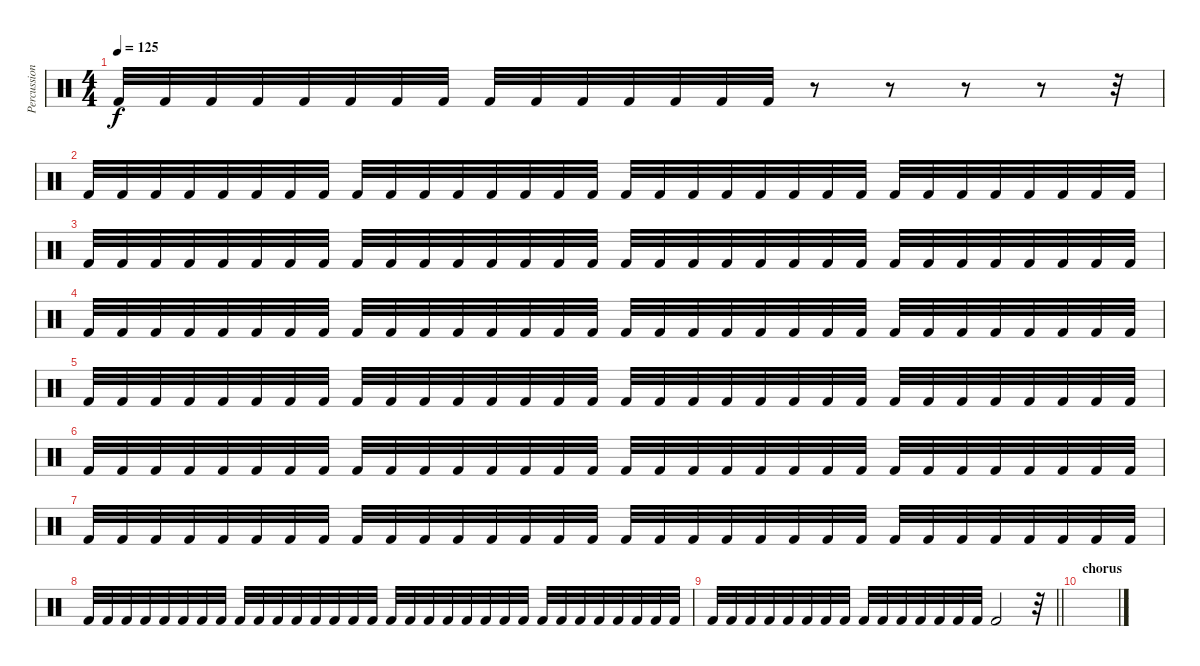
\track ("Percussion" "Percussion") {instrument percussion}
\staff {score}
\articulation defaults
\ts (4 4)
\tempo 125
\clef neutral
\ks c "Kick (hit) 2".32{dy f} "Kick (hit) 2".32 "Kick (hit) 2".32 "Kick (hit) 2".32 "Kick (hit) 2".32 "Kick (hit) 2".32 "Kick (hit) 2".32 "Kick (hit) 2".32 "Kick (hit) 2".32 "Kick (hit) 2".32 "Kick (hit) 2".32 "Kick (hit) 2".32 "Kick (hit) 2".32 "Kick (hit) 2".32 "Kick (hit) 2".32
r.8 r.8 r.8 r.8 r.32 |
"Kick (hit) 2".32 "Kick (hit) 2".32 "Kick (hit) 2".32 "Kick (hit) 2".32 "Kick (hit) 2".32 "Kick (hit) 2".32 "Kick (hit) 2".32 "Kick (hit) 2".32 "Kick (hit) 2".32 "Kick (hit) 2".32 "Kick (hit) 2".32 "Kick (hit) 2".32 "Kick (hit) 2".32 "Kick (hit) 2".32 "Kick (hit) 2".32 "Kick (hit) 2".32 "Kick (hit) 2".32 "Kick (hit) 2".32 "Kick (hit) 2".32 "Kick (hit) 2".32 "Kick (hit) 2".32 "Kick (hit) 2".32 "Kick (hit) 2".32 "Kick (hit) 2".32 "Kick (hit) 2".32 "Kick (hit) 2".32 "Kick (hit) 2".32 "Kick (hit) 2".32 "Kick (hit) 2".32 "Kick (hit) 2".32 "Kick (hit) 2".32 "Kick (hit) 2".32 |
"Kick (hit) 2".32 "Kick (hit) 2".32 "Kick (hit) 2".32 "Kick (hit) 2".32 "Kick (hit) 2".32 "Kick (hit) 2".32 "Kick (hit) 2".32 "Kick (hit) 2".32 "Kick (hit) 2".32 "Kick (hit) 2".32 "Kick (hit) 2".32 "Kick (hit) 2".32 "Kick (hit) 2".32 "Kick (hit) 2".32 "Kick (hit) 2".32 "Kick (hit) 2".32 "Kick (hit) 2".32 "Kick (hit) 2".32 "Kick (hit) 2".32 "Kick (hit) 2".32 "Kick (hit) 2".32 "Kick (hit) 2".32 "Kick (hit) 2".32 "Kick (hit) 2".32 "Kick (hit) 2".32 "Kick (hit) 2".32 "Kick (hit) 2".32 "Kick (hit) 2".32 "Kick (hit) 2".32 "Kick (hit) 2".32 "Kick (hit) 2".32 "Kick (hit) 2".32 |
"Kick (hit) 2".32 "Kick (hit) 2".32 "Kick (hit) 2".32 "Kick (hit) 2".32 "Kick (hit) 2".32 "Kick (hit) 2".32 "Kick (hit) 2".32 "Kick (hit) 2".32 "Kick (hit) 2".32 "Kick (hit) 2".32 "Kick (hit) 2".32 "Kick (hit) 2".32 "Kick (hit) 2".32 "Kick (hit) 2".32 "Kick (hit) 2".32 "Kick (hit) 2".32 "Kick (hit) 2".32 "Kick (hit) 2".32 "Kick (hit) 2".32 "Kick (hit) 2".32 "Kick (hit) 2".32 "Kick (hit) 2".32 "Kick (hit) 2".32 "Kick (hit) 2".32 "Kick (hit) 2".32 "Kick (hit) 2".32 "Kick (hit) 2".32 "Kick (hit) 2".32 "Kick (hit) 2".32 "Kick (hit) 2".32 "Kick (hit) 2".32 "Kick (hit) 2".32 |
"Kick (hit) 2".32 "Kick (hit) 2".32 "Kick (hit) 2".32 "Kick (hit) 2".32 "Kick (hit) 2".32 "Kick (hit) 2".32 "Kick (hit) 2".32 "Kick (hit) 2".32 "Kick (hit) 2".32 "Kick (hit) 2".32 "Kick (hit) 2".32 "Kick (hit) 2".32 "Kick (hit) 2".32 "Kick (hit) 2".32 "Kick (hit) 2".32 "Kick (hit) 2".32 "Kick (hit) 2".32 "Kick (hit) 2".32 "Kick (hit) 2".32 "Kick (hit) 2".32 "Kick (hit) 2".32 "Kick (hit) 2".32 "Kick (hit) 2".32 "Kick (hit) 2".32 "Kick (hit) 2".32 "Kick (hit) 2".32 "Kick (hit) 2".32 "Kick (hit) 2".32 "Kick (hit) 2".32 "Kick (hit) 2".32 "Kick (hit) 2".32 "Kick (hit) 2".32 |
"Kick (hit) 2".32 "Kick (hit) 2".32 "Kick (hit) 2".32 "Kick (hit) 2".32 "Kick (hit) 2".32 "Kick (hit) 2".32 "Kick (hit) 2".32 "Kick (hit) 2".32 "Kick (hit) 2".32 "Kick (hit) 2".32 "Kick (hit) 2".32 "Kick (hit) 2".32 "Kick (hit) 2".32 "Kick (hit) 2".32 "Kick (hit) 2".32 "Kick (hit) 2".32 "Kick (hit) 2".32 "Kick (hit) 2".32 "Kick (hit) 2".32 "Kick (hit) 2".32 "Kick (hit) 2".32 "Kick (hit) 2".32 "Kick (hit) 2".32 "Kick (hit) 2".32 "Kick (hit) 2".32 "Kick (hit) 2".32 "Kick (hit) 2".32 "Kick (hit) 2".32 "Kick (hit) 2".32 "Kick (hit) 2".32 "Kick (hit) 2".32 "Kick (hit) 2".32 |
"Kick (hit) 2".32 "Kick (hit) 2".32 "Kick (hit) 2".32 "Kick (hit) 2".32 "Kick (hit) 2".32 "Kick (hit) 2".32 "Kick (hit) 2".32 "Kick (hit) 2".32 "Kick (hit) 2".32 "Kick (hit) 2".32 "Kick (hit) 2".32 "Kick (hit) 2".32 "Kick (hit) 2".32 "Kick (hit) 2".32 "Kick (hit) 2".32 "Kick (hit) 2".32 "Kick (hit) 2".32 "Kick (hit) 2".32 "Kick (hit) 2".32 "Kick (hit) 2".32 "Kick (hit) 2".32 "Kick (hit) 2".32 "Kick (hit) 2".32 "Kick (hit) 2".32 "Kick (hit) 2".32 "Kick (hit) 2".32 "Kick (hit) 2".32 "Kick (hit) 2".32 "Kick (hit) 2".32 "Kick (hit) 2".32 "Kick (hit) 2".32 "Kick (hit) 2".32 |
"Kick (hit) 2".32 "Kick (hit) 2".32 "Kick (hit) 2".32 "Kick (hit) 2".32 "Kick (hit) 2".32 "Kick (hit) 2".32 "Kick (hit) 2".32 "Kick (hit) 2".32 "Kick (hit) 2".32 "Kick (hit) 2".32 "Kick (hit) 2".32 "Kick (hit) 2".32 "Kick (hit) 2".32 "Kick (hit) 2".32 "Kick (hit) 2".32 "Kick (hit) 2".32 "Kick (hit) 2".32 "Kick (hit) 2".32 "Kick (hit) 2".32 "Kick (hit) 2".32 "Kick (hit) 2".32 "Kick (hit) 2".32 "Kick (hit) 2".32 "Kick (hit) 2".32 "Kick (hit) 2".32 "Kick (hit) 2".32 "Kick (hit) 2".32 "Kick (hit) 2".32 "Kick (hit) 2".32 "Kick (hit) 2".32 "Kick (hit) 2".32 "Kick (hit) 2".32 |
\barLineRight lightlight "Kick (hit) 2".32 "Kick (hit) 2".32 "Kick (hit) 2".32 "Kick (hit) 2".32 "Kick (hit) 2".32 "Kick (hit) 2".32 "Kick (hit) 2".32 "Kick (hit) 2".32 "Kick (hit) 2".32 "Kick (hit) 2".32 "Kick (hit) 2".32 "Kick (hit) 2".32 "Kick (hit) 2".32 "Kick (hit) 2".32 "Kick (hit) 2".32 "Kick (hit) 2".2
r.32 |
\section ("" "chorus")
